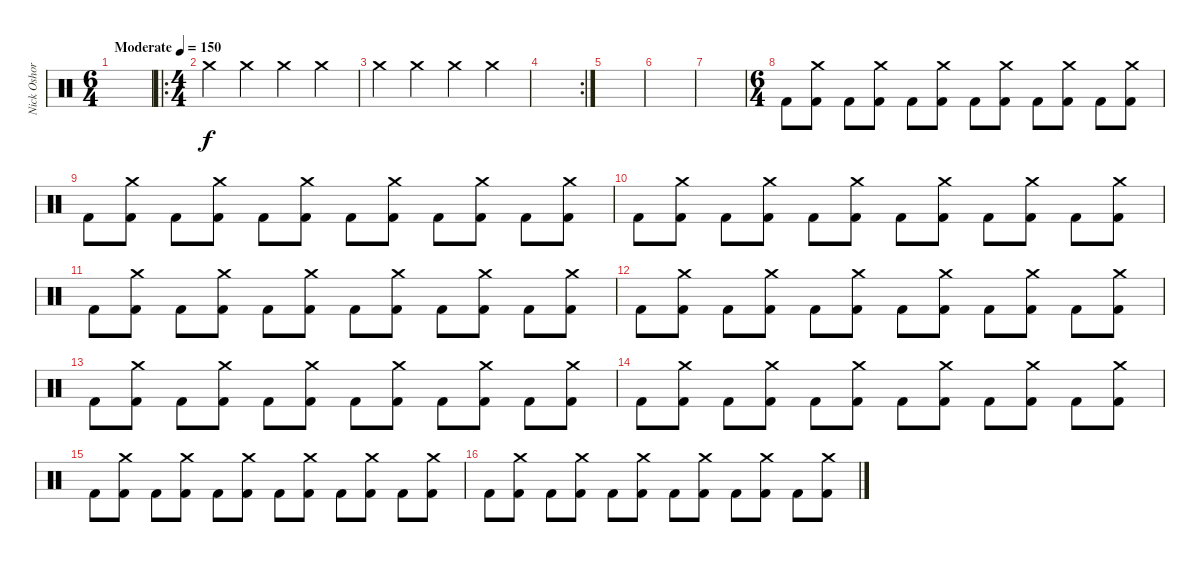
\track ("Nick Oshori" "Nick Oshor") {instrument percussion}
\staff {score}
\articulation defaults
\ts (6 4)
\tempo (150 "Moderate")
\clef neutral
\ks c
|
\ro
\ts (4 4)
"Crash medium (hit)".4 "Crash medium (hit)".4 "Crash medium (hit)".4 "Crash medium (hit)".4 |
"Crash medium (hit)".4 "Crash medium (hit)".4 "Crash medium (hit)".4 "Crash medium (hit)".4 |
\rc 2
|
|
|
|
\ts (6 4)
"Kick (hit) 2".8 ("Crash medium (hit)" "Kick (hit) 2").8 "Kick (hit) 2".8 ("Crash medium (hit)" "Kick (hit) 2").8 "Kick (hit) 2".8 ("Crash medium (hit)" "Kick (hit) 2").8 "Kick (hit) 2".8 ("Crash medium (hit)" "Kick (hit) 2").8 "Kick (hit) 2".8 ("Crash medium (hit)" "Kick (hit) 2").8 "Kick (hit) 2".8 ("Crash medium (hit)" "Kick (hit) 2").8 |
"Kick (hit) 2".8 ("Crash medium (hit)" "Kick (hit) 2").8 "Kick (hit) 2".8 ("Crash medium (hit)" "Kick (hit) 2").8 "Kick (hit) 2".8 ("Crash medium (hit)" "Kick (hit) 2").8 "Kick (hit) 2".8 ("Crash medium (hit)" "Kick (hit) 2").8 "Kick (hit) 2".8 ("Crash medium (hit)" "Kick (hit) 2").8 "Kick (hit) 2".8 ("Crash medium (hit)" "Kick (hit) 2").8 |
"Kick (hit) 2".8 ("Crash medium (hit)" "Kick (hit) 2").8 "Kick (hit) 2".8 ("Crash medium (hit)" "Kick (hit) 2").8 "Kick (hit) 2".8 ("Crash medium (hit)" "Kick (hit) 2").8 "Kick (hit) 2".8 ("Crash medium (hit)" "Kick (hit) 2").8 "Kick (hit) 2".8 ("Crash medium (hit)" "Kick (hit) 2").8 "Kick (hit) 2".8 ("Crash medium (hit)" "Kick (hit) 2").8 |
"Kick (hit) 2".8 ("Crash medium (hit)" "Kick (hit) 2").8 "Kick (hit) 2".8 ("Crash medium (hit)" "Kick (hit) 2").8 "Kick (hit) 2".8 ("Crash medium (hit)" "Kick (hit) 2").8 "Kick (hit) 2".8 ("Crash medium (hit)" "Kick (hit) 2").8 "Kick (hit) 2".8 ("Crash medium (hit)" "Kick (hit) 2").8 "Kick (hit) 2".8 ("Crash medium (hit)" "Kick (hit) 2").8 |
"Kick (hit) 2".8 ("Crash medium (hit)" "Kick (hit) 2").8 "Kick (hit) 2".8 ("Crash medium (hit)" "Kick (hit) 2").8 "Kick (hit) 2".8 ("Crash medium (hit)" "Kick (hit) 2").8 "Kick (hit) 2".8 ("Crash medium (hit)" "Kick (hit) 2").8 "Kick (hit) 2".8 ("Crash medium (hit)" "Kick (hit) 2").8 "Kick (hit) 2".8 ("Crash medium (hit)" "Kick (hit) 2").8 |
"Kick (hit) 2".8 ("Crash medium (hit)" "Kick (hit) 2").8 "Kick (hit) 2".8 ("Crash medium (hit)" "Kick (hit) 2").8 "Kick (hit) 2".8 ("Crash medium (hit)" "Kick (hit) 2").8 "Kick (hit) 2".8 ("Crash medium (hit)" "Kick (hit) 2").8 "Kick (hit) 2".8 ("Crash medium (hit)" "Kick (hit) 2").8 "Kick (hit) 2".8 ("Crash medium (hit)" "Kick (hit) 2").8 |
"Kick (hit) 2".8 ("Crash medium (hit)" "Kick (hit) 2").8 "Kick (hit) 2".8 ("Crash medium (hit)" "Kick (hit) 2").8 "Kick (hit) 2".8 ("Crash medium (hit)" "Kick (hit) 2").8 "Kick (hit) 2".8 ("Crash medium (hit)" "Kick (hit) 2").8 "Kick (hit) 2".8 ("Crash medium (hit)" "Kick (hit) 2").8 "Kick (hit) 2".8 ("Crash medium (hit)" "Kick (hit) 2").8 |
"Kick (hit) 2".8 ("Crash medium (hit)" "Kick (hit) 2").8 "Kick (hit) 2".8 ("Crash medium (hit)" "Kick (hit) 2").8 "Kick (hit) 2".8 ("Crash medium (hit)" "Kick (hit) 2").8 "Kick (hit) 2".8 ("Crash medium (hit)" "Kick (hit) 2").8 "Kick (hit) 2".8 ("Crash medium (hit)" "Kick (hit) 2").8 "Kick (hit) 2".8 ("Crash medium (hit)" "Kick (hit) 2").8 |
"Kick (hit) 2".8 ("Crash medium (hit)" "Kick (hit) 2").8 "Kick (hit) 2".8 ("Crash medium (hit)" "Kick (hit) 2").8 "Kick (hit) 2".8 ("Crash medium (hit)" "Kick (hit) 2").8 "Kick (hit) 2".8 ("Crash medium (hit)" "Kick (hit) 2").8 "Kick (hit) 2".8 ("Crash medium (hit)" "Kick (hit) 2").8 "Kick (hit) 2".8 ("Crash medium (hit)" "Kick (hit) 2").8
